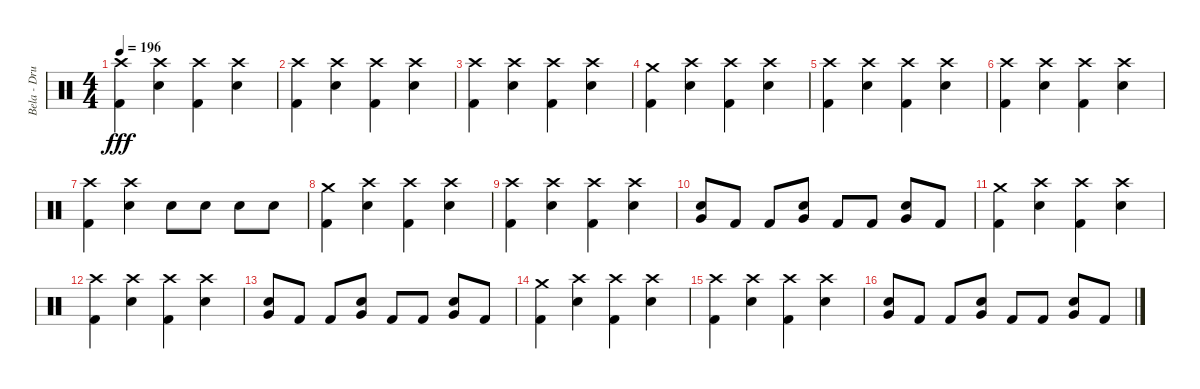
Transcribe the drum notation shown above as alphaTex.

\track ("Bela - Drums" "Bela - Dru") {instrument percussion}
\staff {score}
\articulation defaults
\ts (4 4)
\tempo 196
\clef neutral
\ks c
("Crash high (hit)" "Kick (hit) 2").4{dy fff} ("Crash high (hit)" "Electric Snare (hit)").4 ("Crash high (hit)" "Kick (hit) 2").4 ("Crash high (hit)" "Electric Snare (hit)").4 |
("Crash high (hit)" "Kick (hit) 2").4 ("Crash high (hit)" "Electric Snare (hit)").4 ("Crash high (hit)" "Kick (hit) 2").4 ("Crash high (hit)" "Electric Snare (hit)").4 |
("Crash high (hit)" "Kick (hit) 2").4 ("Crash high (hit)" "Electric Snare (hit)").4 ("Crash high (hit)" "Kick (hit) 2").4 ("Crash high (hit)" "Electric Snare (hit)").4 |
("Crash medium (hit)" "Kick (hit) 2").4 ("Crash high (hit)" "Electric Snare (hit)").4 ("Crash high (hit)" "Kick (hit) 2").4 ("Crash high (hit)" "Electric Snare (hit)").4 |
("Crash high (hit)" "Kick (hit) 2").4 ("Crash high (hit)" "Electric Snare (hit)").4 ("Crash high (hit)" "Kick (hit) 2").4 ("Crash high (hit)" "Electric Snare (hit)").4 |
("Crash high (hit)" "Kick (hit) 2").4 ("Crash high (hit)" "Electric Snare (hit)").4 ("Crash high (hit)" "Kick (hit) 2").4 ("Crash high (hit)" "Electric Snare (hit)").4 |
("Crash high (hit)" "Kick (hit) 2").4 ("Crash high (hit)" "Electric Snare (hit)").4 "Electric Snare (hit)".8 "Electric Snare (hit)".8 "Electric Snare (hit)".8 "Electric Snare (hit)".8 |
("Crash medium (hit)" "Kick (hit) 2").4 ("Crash high (hit)" "Electric Snare (hit)").4 ("Crash high (hit)" "Kick (hit) 2").4 ("Crash high (hit)" "Electric Snare (hit)").4 |
("Crash high (hit)" "Kick (hit) 2").4 ("Crash high (hit)" "Electric Snare (hit)").4 ("Crash high (hit)" "Kick (hit) 2").4 ("Crash high (hit)" "Electric Snare (hit)").4 |
("Electric Snare (hit)" "Very Low Tom (hit)").8 "Kick (hit) 2".8 "Kick (hit) 2".8 ("Electric Snare (hit)" "Very Low Tom (hit)").8 "Kick (hit) 2".8 "Kick (hit) 2".8 ("Electric Snare (hit)" "Very Low Tom (hit)").8 "Kick (hit) 2".8 |
("Crash medium (hit)" "Kick (hit) 2").4 ("Crash high (hit)" "Electric Snare (hit)").4 ("Crash high (hit)" "Kick (hit) 2").4 ("Crash high (hit)" "Electric Snare (hit)").4 |
("Crash high (hit)" "Kick (hit) 2").4 ("Crash high (hit)" "Electric Snare (hit)").4 ("Crash high (hit)" "Kick (hit) 2").4 ("Crash high (hit)" "Electric Snare (hit)").4 |
("Electric Snare (hit)" "Very Low Tom (hit)").8 "Kick (hit) 2".8 "Kick (hit) 2".8 ("Electric Snare (hit)" "Very Low Tom (hit)").8 "Kick (hit) 2".8 "Kick (hit) 2".8 ("Electric Snare (hit)" "Very Low Tom (hit)").8 "Kick (hit) 2".8 |
("Crash medium (hit)" "Kick (hit) 2").4 ("Crash high (hit)" "Electric Snare (hit)").4 ("Crash high (hit)" "Kick (hit) 2").4 ("Crash high (hit)" "Electric Snare (hit)").4 |
("Crash high (hit)" "Kick (hit) 2").4 ("Crash high (hit)" "Electric Snare (hit)").4 ("Crash high (hit)" "Kick (hit) 2").4 ("Crash high (hit)" "Electric Snare (hit)").4 |
("Electric Snare (hit)" "Very Low Tom (hit)").8 "Kick (hit) 2".8 "Kick (hit) 2".8 ("Electric Snare (hit)" "Very Low Tom (hit)").8 "Kick (hit) 2".8 "Kick (hit) 2".8 ("Electric Snare (hit)" "Very Low Tom (hit)").8 "Kick (hit) 2".8
